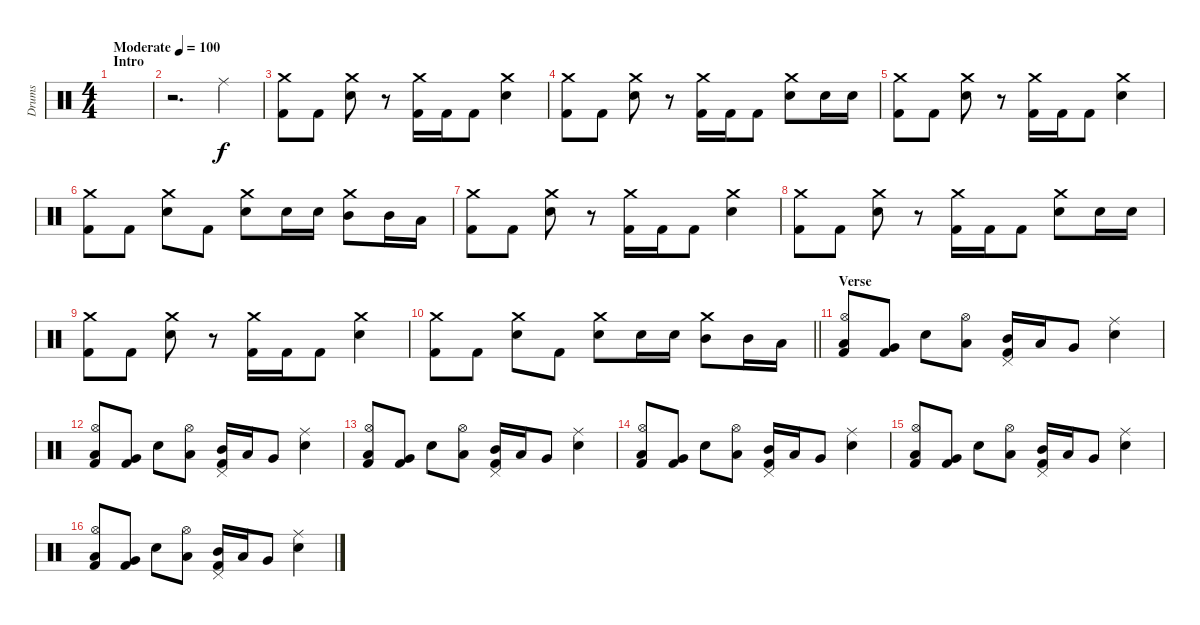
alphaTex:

\track ("Drums" "Drums") {instrument percussion}
\staff {score}
\articulation defaults
\ts (4 4)
\section ("" "Intro")
\tempo (100 "Moderate")
\clef neutral
\ks c
|
r.2{d} "Ride (middle)".4 |
("Crash medium (hit)" "Kick (hit) 2").8 "Kick (hit) 2".8 ("Crash medium (hit)" "Snare (hit) 2").8 r.8 ("Crash medium (hit)" "Kick (hit) 2").16 "Kick (hit) 2".16 "Kick (hit) 2".8 ("Crash medium (hit)" "Snare (hit) 2").4 |
("Crash medium (hit)" "Kick (hit) 2").8 "Kick (hit) 2".8 ("Crash medium (hit)" "Snare (hit) 2").8 r.8 ("Crash medium (hit)" "Kick (hit) 2").16 "Kick (hit) 2".16 "Kick (hit) 2".8 ("Crash medium (hit)" "Snare (hit) 2").8 "Snare (hit) 2".16 "Snare (hit) 2".16 |
("Crash medium (hit)" "Kick (hit) 2").8 "Kick (hit) 2".8 ("Crash medium (hit)" "Snare (hit) 2").8 r.8 ("Crash medium (hit)" "Kick (hit) 2").16 "Kick (hit) 2".16 "Kick (hit) 2".8 ("Crash medium (hit)" "Snare (hit) 2").4 |
("Crash medium (hit)" "Kick (hit) 2").8 "Kick (hit) 2".8 ("Crash medium (hit)" "Snare (hit) 2").8 "Kick (hit) 2".8 ("Crash medium (hit)" "Snare (hit) 2").8 "Snare (hit) 2".16 "Snare (hit) 2".16 ("Crash medium (hit)" "Mid Tom (hit)").8 "Mid Tom (hit)".16 "Low Floor Tom (hit)".16 |
("Crash medium (hit)" "Kick (hit) 2").8 "Kick (hit) 2".8 ("Crash medium (hit)" "Snare (hit) 2").8 r.8 ("Crash medium (hit)" "Kick (hit) 2").16 "Kick (hit) 2".16 "Kick (hit) 2".8 ("Crash medium (hit)" "Snare (hit) 2").4 |
("Crash medium (hit)" "Kick (hit) 2").8 "Kick (hit) 2".8 ("Crash medium (hit)" "Snare (hit) 2").8 r.8 ("Crash medium (hit)" "Kick (hit) 2").16 "Kick (hit) 2".16 "Kick (hit) 2".8 ("Crash medium (hit)" "Snare (hit) 2").8 "Snare (hit) 2".16 "Snare (hit) 2".16 |
("Crash medium (hit)" "Kick (hit) 2").8 "Kick (hit) 2".8 ("Crash medium (hit)" "Snare (hit) 2").8 r.8 ("Crash medium (hit)" "Kick (hit) 2").16 "Kick (hit) 2".16 "Kick (hit) 2".8 ("Crash medium (hit)" "Snare (hit) 2").4 |
\barLineRight lightlight
("Crash medium (hit)" "Kick (hit) 2").8 "Kick (hit) 2".8 ("Crash medium (hit)" "Snare (hit) 2").8 "Kick (hit) 2".8 ("Crash medium (hit)" "Snare (hit) 2").8 "Snare (hit) 2".16 "Snare (hit) 2".16 ("Crash medium (hit)" "Mid Tom (hit)").8 "Mid Tom (hit)".16 "Low Floor Tom (hit)".16 |
\section ("" "Verse")
("Hi-Hat (open)" "Low Tom (hit)" "Kick (hit) 2").8 ("Very Low Tom (hit)" "Kick (hit) 2").8 "Snare (hit) 2".8 ("Hi-Hat (open)" "Low Floor Tom (hit)").8 ("Pedal Hi-Hat (hit)" "Mid Tom (hit)" "Kick (hit) 2").16 "Low Tom (hit)".16 "Very Low Tom (hit)".8 ("Ride (middle)" "Snare (hit) 2").4 |
("Hi-Hat (open)" "Low Tom (hit)" "Kick (hit) 2").8 ("Very Low Tom (hit)" "Kick (hit) 2").8 "Snare (hit) 2".8 ("Hi-Hat (open)" "Low Floor Tom (hit)").8 ("Pedal Hi-Hat (hit)" "Mid Tom (hit)" "Kick (hit) 2").16 "Low Tom (hit)".16 "Very Low Tom (hit)".8 ("Ride (middle)" "Snare (hit) 2").4 |
("Hi-Hat (open)" "Low Tom (hit)" "Kick (hit) 2").8 ("Very Low Tom (hit)" "Kick (hit) 2").8 "Snare (hit) 2".8 ("Hi-Hat (open)" "Low Floor Tom (hit)").8 ("Pedal Hi-Hat (hit)" "Mid Tom (hit)" "Kick (hit) 2").16 "Low Tom (hit)".16 "Very Low Tom (hit)".8 ("Ride (middle)" "Snare (hit) 2").4 |
("Hi-Hat (open)" "Low Tom (hit)" "Kick (hit) 2").8 ("Very Low Tom (hit)" "Kick (hit) 2").8 "Snare (hit) 2".8 ("Hi-Hat (open)" "Low Floor Tom (hit)").8 ("Pedal Hi-Hat (hit)" "Mid Tom (hit)" "Kick (hit) 2").16 "Low Tom (hit)".16 "Very Low Tom (hit)".8 ("Ride (middle)" "Snare (hit) 2").4 |
("Hi-Hat (open)" "Low Tom (hit)" "Kick (hit) 2").8 ("Very Low Tom (hit)" "Kick (hit) 2").8 "Snare (hit) 2".8 ("Hi-Hat (open)" "Low Floor Tom (hit)").8 ("Pedal Hi-Hat (hit)" "Mid Tom (hit)" "Kick (hit) 2").16 "Low Tom (hit)".16 "Very Low Tom (hit)".8 ("Ride (middle)" "Snare (hit) 2").4 |
("Hi-Hat (open)" "Low Tom (hit)" "Kick (hit) 2").8 ("Very Low Tom (hit)" "Kick (hit) 2").8 "Snare (hit) 2".8 ("Hi-Hat (open)" "Low Floor Tom (hit)").8 ("Pedal Hi-Hat (hit)" "Mid Tom (hit)" "Kick (hit) 2").16 "Low Tom (hit)".16 "Very Low Tom (hit)".8 ("Ride (middle)" "Snare (hit) 2").4
